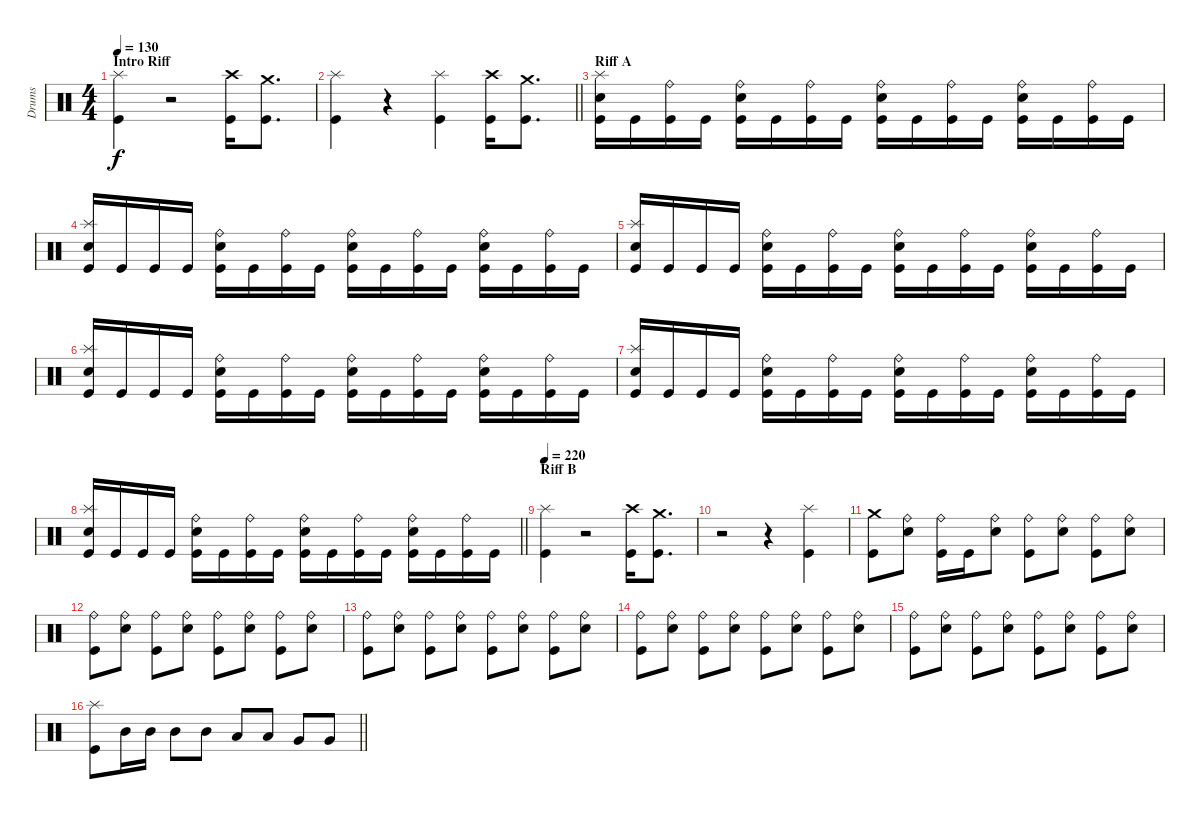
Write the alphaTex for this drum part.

\track ("Drums" "Drums") {instrument percussion}
\staff {score}
\articulation defaults
\ts (4 4)
\section ("" "Intro Riff")
\tempo 130
\clef neutral
\ks c
("Kick (hit)" "Splash (hit)").4{dy f} r.2 ("Kick (hit)" "Crash high (hit)").16 ("Kick (hit)" "Crash medium (hit)").8{d} |
\barLineRight lightlight
("Kick (hit)" "Splash (hit)").4 r.4 ("Kick (hit)" "Splash (hit)").4 ("Kick (hit)" "Crash high (hit)").16 ("Kick (hit)" "Crash medium (hit)").8{d} |
\section ("" "Riff A")
("Kick (hit)" "Electric Snare (hit)" "Splash (hit)").16 "Kick (hit)".16 ("Kick (hit)" "Ride (bell)").16 "Kick (hit)".16 ("Kick (hit)" "Electric Snare (hit)" "Ride (bell)").16 "Kick (hit)".16 ("Kick (hit)" "Ride (bell)").16 "Kick (hit)".16 ("Kick (hit)" "Electric Snare (hit)" "Ride (bell)").16 "Kick (hit)".16 ("Kick (hit)" "Ride (bell)").16 "Kick (hit)".16 ("Kick (hit)" "Electric Snare (hit)" "Ride (bell)").16 "Kick (hit)".16 ("Kick (hit)" "Ride (bell)").16 "Kick (hit)".16 |
("Kick (hit)" "Electric Snare (hit)" "Splash (hit)").16 "Kick (hit)".16 "Kick (hit)".16 "Kick (hit)".16 ("Kick (hit)" "Electric Snare (hit)" "Ride (bell)").16 "Kick (hit)".16 ("Kick (hit)" "Ride (bell)").16 "Kick (hit)".16 ("Kick (hit)" "Electric Snare (hit)" "Ride (bell)").16 "Kick (hit)".16 ("Kick (hit)" "Ride (bell)").16 "Kick (hit)".16 ("Kick (hit)" "Electric Snare (hit)" "Ride (bell)").16 "Kick (hit)".16 ("Kick (hit)" "Ride (bell)").16 "Kick (hit)".16 |
("Kick (hit)" "Electric Snare (hit)" "Splash (hit)").16 "Kick (hit)".16 "Kick (hit)".16 "Kick (hit)".16 ("Kick (hit)" "Electric Snare (hit)" "Ride (bell)").16 "Kick (hit)".16 ("Kick (hit)" "Ride (bell)").16 "Kick (hit)".16 ("Kick (hit)" "Electric Snare (hit)" "Ride (bell)").16 "Kick (hit)".16 ("Kick (hit)" "Ride (bell)").16 "Kick (hit)".16 ("Kick (hit)" "Electric Snare (hit)" "Ride (bell)").16 "Kick (hit)".16 ("Kick (hit)" "Ride (bell)").16 "Kick (hit)".16 |
("Kick (hit)" "Electric Snare (hit)" "Splash (hit)").16 "Kick (hit)".16 "Kick (hit)".16 "Kick (hit)".16 ("Kick (hit)" "Electric Snare (hit)" "Ride (bell)").16 "Kick (hit)".16 ("Kick (hit)" "Ride (bell)").16 "Kick (hit)".16 ("Kick (hit)" "Electric Snare (hit)" "Ride (bell)").16 "Kick (hit)".16 ("Kick (hit)" "Ride (bell)").16 "Kick (hit)".16 ("Kick (hit)" "Electric Snare (hit)" "Ride (bell)").16 "Kick (hit)".16 ("Kick (hit)" "Ride (bell)").16 "Kick (hit)".16 |
("Kick (hit)" "Electric Snare (hit)" "Splash (hit)").16 "Kick (hit)".16 "Kick (hit)".16 "Kick (hit)".16 ("Kick (hit)" "Electric Snare (hit)" "Ride (bell)").16 "Kick (hit)".16 ("Kick (hit)" "Ride (bell)").16 "Kick (hit)".16 ("Kick (hit)" "Electric Snare (hit)" "Ride (bell)").16 "Kick (hit)".16 ("Kick (hit)" "Ride (bell)").16 "Kick (hit)".16 ("Kick (hit)" "Electric Snare (hit)" "Ride (bell)").16 "Kick (hit)".16 ("Kick (hit)" "Ride (bell)").16 "Kick (hit)".16 |
\barLineRight lightlight
("Kick (hit)" "Electric Snare (hit)" "Splash (hit)").16 "Kick (hit)".16 "Kick (hit)".16 "Kick (hit)".16 ("Kick (hit)" "Electric Snare (hit)" "Ride (bell)").16 "Kick (hit)".16 ("Kick (hit)" "Ride (bell)").16 "Kick (hit)".16 ("Kick (hit)" "Electric Snare (hit)" "Ride (bell)").16 "Kick (hit)".16 ("Kick (hit)" "Ride (bell)").16 "Kick (hit)".16 ("Kick (hit)" "Electric Snare (hit)" "Ride (bell)").16 "Kick (hit)".16 ("Kick (hit)" "Ride (bell)").16 "Kick (hit)".16 |
\section ("" "Riff B")
\tempo 220
("Kick (hit)" "Splash (hit)").4 r.2 ("Kick (hit)" "Crash high (hit)").16 ("Kick (hit)" "Crash medium (hit)").8{d} |
r.2 r.4 ("Kick (hit)" "Splash (hit)").4 |
("Kick (hit)" "Crash medium (hit)").8 ("Electric Snare (hit)" "Ride (bell)").8 ("Kick (hit)" "Ride (bell)").16 "Kick (hit)".16 ("Electric Snare (hit)" "Ride (bell)").8 ("Kick (hit)" "Ride (bell)").8 ("Electric Snare (hit)" "Ride (bell)").8 ("Kick (hit)" "Ride (bell)").8 ("Electric Snare (hit)" "Ride (bell)").8 |
("Kick (hit)" "Ride (bell)").8 ("Electric Snare (hit)" "Ride (bell)").8 ("Kick (hit)" "Ride (bell)").8 ("Electric Snare (hit)" "Ride (bell)").8 ("Kick (hit)" "Ride (bell)").8 ("Electric Snare (hit)" "Ride (bell)").8 ("Kick (hit)" "Ride (bell)").8 ("Electric Snare (hit)" "Ride (bell)").8 |
("Kick (hit)" "Ride (bell)").8 ("Electric Snare (hit)" "Ride (bell)").8 ("Kick (hit)" "Ride (bell)").8 ("Electric Snare (hit)" "Ride (bell)").8 ("Kick (hit)" "Ride (bell)").8 ("Electric Snare (hit)" "Ride (bell)").8 ("Kick (hit)" "Ride (bell)").8 ("Electric Snare (hit)" "Ride (bell)").8 |
("Kick (hit)" "Ride (bell)").8 ("Electric Snare (hit)" "Ride (bell)").8 ("Kick (hit)" "Ride (bell)").8 ("Electric Snare (hit)" "Ride (bell)").8 ("Kick (hit)" "Ride (bell)").8 ("Electric Snare (hit)" "Ride (bell)").8 ("Kick (hit)" "Ride (bell)").8 ("Electric Snare (hit)" "Ride (bell)").8 |
("Kick (hit)" "Ride (bell)").8 ("Electric Snare (hit)" "Ride (bell)").8 ("Kick (hit)" "Ride (bell)").8 ("Electric Snare (hit)" "Ride (bell)").8 ("Kick (hit)" "Ride (bell)").8 ("Electric Snare (hit)" "Ride (bell)").8 ("Kick (hit)" "Ride (bell)").8 ("Electric Snare (hit)" "Ride (bell)").8 |
\barLineRight lightlight
("Kick (hit)" "Splash (hit)").8 "Mid Tom (hit)".16 "Mid Tom (hit)".16 "Mid Tom (hit)".8 "Mid Tom (hit)".8 "Low Tom (hit)".8 "Low Tom (hit)".8 "Very Low Tom (hit)".8 "Very Low Tom (hit)".8
